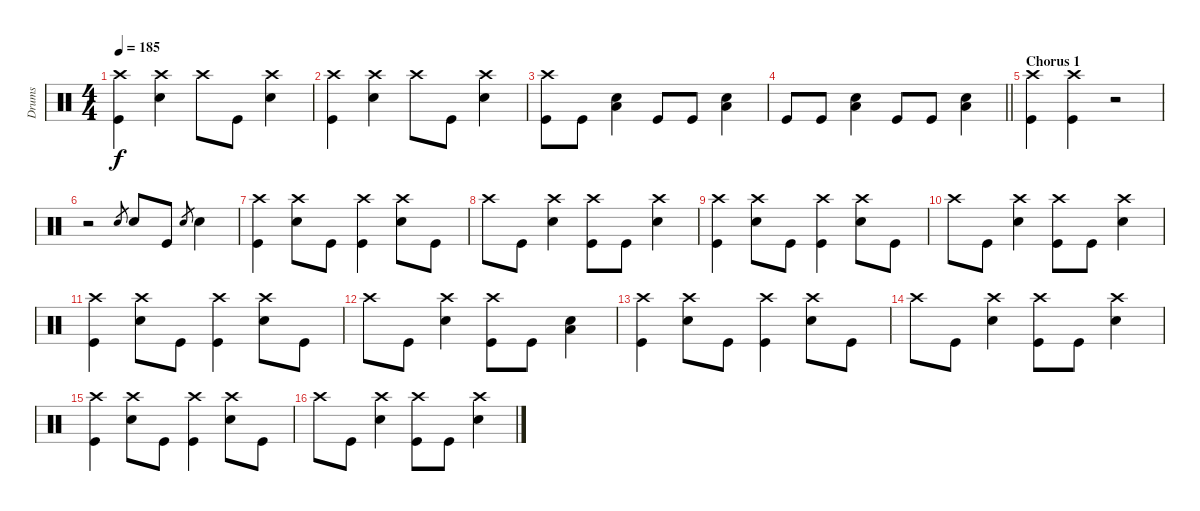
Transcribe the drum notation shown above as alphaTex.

\track ("Drums" "Drums") {instrument percussion}
\staff {score}
\articulation defaults
\ts (4 4)
\tempo 185
\clef neutral
\ks c
("Crash high (hit)" "Kick (hit)").4{dy f} ("Crash high (hit)" "Snare (hit) 2").4 "Crash high (hit)".8 "Kick (hit)".8 ("Crash high (hit)" "Snare (hit) 2").4 |
("Crash high (hit)" "Kick (hit)").4 ("Crash high (hit)" "Snare (hit) 2").4 "Crash high (hit)".8 "Kick (hit)".8 ("Crash high (hit)" "Snare (hit) 2").4 |
("Crash high (hit)" "Kick (hit)").8 "Kick (hit)".8 ("Snare (hit) 2" "Low Floor Tom (hit)").4 "Kick (hit)".8 "Kick (hit)".8 ("Snare (hit) 2" "Low Floor Tom (hit)").4 |
\barLineRight lightlight "Kick (hit)".8 "Kick (hit)".8
("Snare (hit) 2" "Low Floor Tom (hit)").4 "Kick (hit)".8 "Kick (hit)".8 ("Snare (hit) 2" "Low Floor Tom (hit)").4 |
\section ("" "Chorus 1")
("Crash high (hit)" "Kick (hit)").4 ("Crash high (hit)" "Kick (hit)").4 r.2 |
r.2 "Snare (hit) 2".8{gr} "Snare (hit) 2".8 "Kick (hit)".8 "Snare (hit) 2".8{gr} "Snare (hit) 2".4 |
("Crash high (hit)" "Kick (hit)").4 ("Crash high (hit)" "Snare (hit) 2").8 "Kick (hit)".8 ("Crash high (hit)" "Kick (hit)").4 ("Crash high (hit)" "Snare (hit) 2").8 "Kick (hit)".8 |
"Crash high (hit)".8 "Kick (hit)".8 ("Crash high (hit)" "Snare (hit) 2").4 ("Crash high (hit)" "Kick (hit)").8 "Kick (hit)".8 ("Crash high (hit)" "Snare (hit) 2").4 |
("Crash high (hit)" "Kick (hit)").4 ("Crash high (hit)" "Snare (hit) 2").8 "Kick (hit)".8 ("Crash high (hit)" "Kick (hit)").4 ("Crash high (hit)" "Snare (hit) 2").8 "Kick (hit)".8 |
"Crash high (hit)".8 "Kick (hit)".8 ("Crash high (hit)" "Snare (hit) 2").4 ("Crash high (hit)" "Kick (hit)").8 "Kick (hit)".8 ("Crash high (hit)" "Snare (hit) 2").4 |
("Crash high (hit)" "Kick (hit)").4 ("Crash high (hit)" "Snare (hit) 2").8 "Kick (hit)".8 ("Crash high (hit)" "Kick (hit)").4 ("Crash high (hit)" "Snare (hit) 2").8 "Kick (hit)".8 |
"Crash high (hit)".8 "Kick (hit)".8 ("Crash high (hit)" "Snare (hit) 2").4 ("Crash high (hit)" "Kick (hit)").8 "Kick (hit)".8 ("Snare (hit) 2" "Low Floor Tom (hit)").4 |
("Crash high (hit)" "Kick (hit)").4 ("Crash high (hit)" "Snare (hit) 2").8 "Kick (hit)".8 ("Crash high (hit)" "Kick (hit)").4 ("Crash high (hit)" "Snare (hit) 2").8 "Kick (hit)".8 |
"Crash high (hit)".8 "Kick (hit)".8 ("Crash high (hit)" "Snare (hit) 2").4 ("Crash high (hit)" "Kick (hit)").8 "Kick (hit)".8 ("Crash high (hit)" "Snare (hit) 2").4 |
("Crash high (hit)" "Kick (hit)").4 ("Crash high (hit)" "Snare (hit) 2").8 "Kick (hit)".8 ("Crash high (hit)" "Kick (hit)").4 ("Crash high (hit)" "Snare (hit) 2").8 "Kick (hit)".8 |
"Crash high (hit)".8 "Kick (hit)".8 ("Crash high (hit)" "Snare (hit) 2").4 ("Crash high (hit)" "Kick (hit)").8 "Kick (hit)".8 ("Crash high (hit)" "Snare (hit) 2").4
